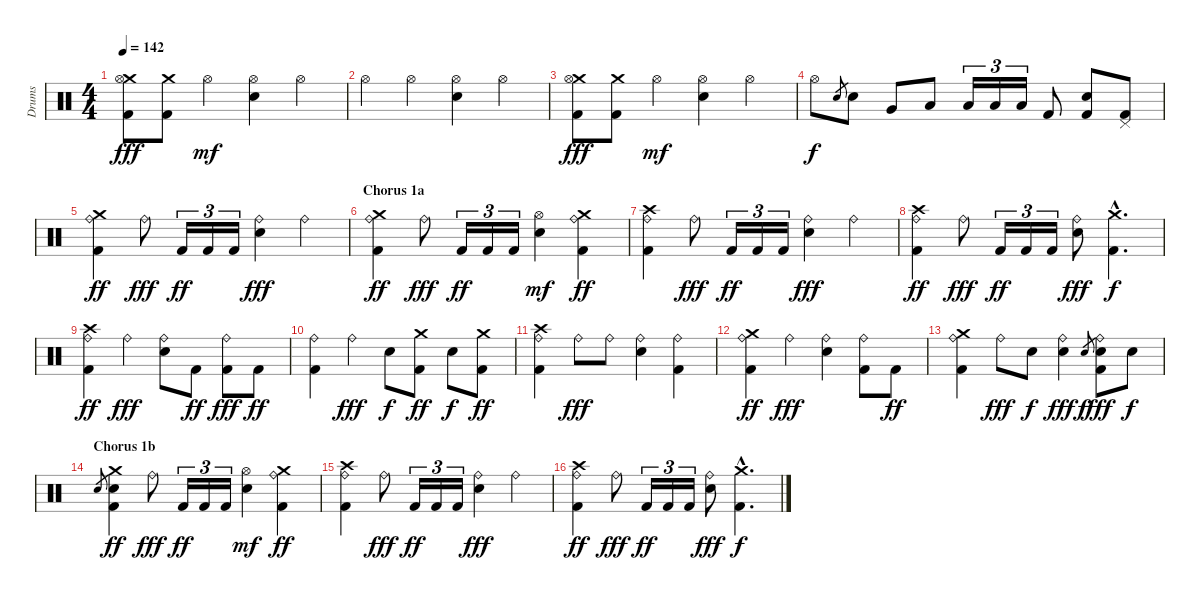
\track ("Drums" "Drums") {instrument percussion}
\staff {score}
\articulation defaults
\ts (4 4)
\tempo 142
\clef neutral
\ks c
("Crash medium (hit)" "Hi-Hat (open)" "Kick (hit) 2").8{dy fff} ("Crash medium (hit)" "Kick (hit) 2").8 "Hi-Hat (open)".4{dy mf} ("Hi-Hat (open)" "Snare (hit) 2").4 "Hi-Hat (open)".4 |
"Hi-Hat (open)".4 "Hi-Hat (open)".4 ("Hi-Hat (open)" "Snare (hit) 2").4 "Hi-Hat (open)".4 |
("Crash medium (hit)" "Hi-Hat (open)" "Kick (hit) 2").8{dy fff} ("Crash medium (hit)" "Kick (hit) 2").8 "Hi-Hat (open)".4{dy mf} ("Hi-Hat (open)" "Snare (hit) 2").4 "Hi-Hat (open)".4 |
"Hi-Hat (open)".8{dy f} "Snare (hit) 2".8{gr} "Snare (hit) 2".8 "Very Low Tom (hit)".8 "Low Floor Tom (hit)".8 "Low Floor Tom (hit)".16{tu (3 2)} "Low Floor Tom (hit)".16{tu (3 2)} "Low Floor Tom (hit)".16{tu (3 2)} "Kick (hit) 2".8 ("Snare (hit) 2" "Kick (hit) 2").8 ("Pedal Hi-Hat (hit)" "Kick (hit) 2").8 |
("Crash medium (hit)" "Ride (bell)" "Kick (hit) 2").4{dy ff} "Ride (bell)".8{dy fff} "Kick (hit) 2".16{tu (3 2) dy ff} "Kick (hit) 2".16{tu (3 2)} "Kick (hit) 2".16{tu (3 2)} ("Ride (bell)" "Snare (hit) 2").4{dy fff} "Ride (bell)".4 |
\section ("" "Chorus 1a")
("Crash medium (hit)" "Ride (bell)" "Kick (hit) 2").4{dy ff} "Ride (bell)".8{dy fff} "Kick (hit) 2".16{tu (3 2) dy ff} "Kick (hit) 2".16{tu (3 2)} "Kick (hit) 2".16{tu (3 2)} ("Hi-Hat (open)" "Snare (hit) 2").4{dy mf} ("Crash medium (hit)" "Ride (bell)" "Kick (hit) 2").4{dy ff} |
("Crash high (hit)" "Ride (bell)" "Kick (hit) 2").4 "Ride (bell)".8{dy fff} "Kick (hit) 2".16{tu (3 2) dy ff} "Kick (hit) 2".16{tu (3 2)} "Kick (hit) 2".16{tu (3 2)} ("Ride (bell)" "Snare (hit) 2").4{dy fff} "Ride (bell)".4 |
("Crash high (hit)" "Ride (bell)" "Kick (hit) 2").4{dy ff} "Ride (bell)".8{dy fff} "Kick (hit) 2".16{tu (3 2) dy ff} "Kick (hit) 2".16{tu (3 2)} "Kick (hit) 2".16{tu (3 2)} ("Ride (bell)" "Snare (hit) 2").8{dy fff} ("Crash medium (hit)"{hac} "Kick (hit) 2"{hac}).4{d dy f} |
("Crash high (hit)" "Ride (bell)" "Kick (hit) 2").4{dy ff} "Ride (bell)".4{dy fff} ("Ride (bell)" "Snare (hit) 2").8 "Kick (hit) 2".8{dy ff} ("Ride (bell)" "Kick (hit) 2").8{dy fff} "Kick (hit) 2".8{dy ff} |
("Ride (bell)" "Kick (hit) 2").4 "Ride (bell)".4{dy fff} "Snare (hit) 2".8{dy f} ("Crash medium (hit)" "Kick (hit) 2").8{dy ff} "Snare (hit) 2".8{dy f} ("Crash medium (hit)" "Kick (hit) 2").8{dy ff} |
("Crash high (hit)" "Ride (bell)" "Kick (hit) 2").4 "Ride (bell)".8{dy fff} "Ride (bell)".8 ("Ride (bell)" "Snare (hit) 2").4 ("Ride (bell)" "Kick (hit) 2").4 |
("Crash medium (hit)" "Ride (bell)" "Kick (hit) 2").4{dy ff} "Ride (bell)".4{dy fff} ("Ride (bell)" "Snare (hit) 2").4 ("Ride (bell)" "Kick (hit) 2").8 "Kick (hit) 2".8{dy ff} |
("Crash medium (hit)" "Ride (bell)" "Kick (hit) 2").4 "Ride (bell)".8{dy fff} "Snare (hit) 2".8{dy f} ("Ride (bell)" "Snare (hit) 2").4{dy fff} "Snare (hit) 2".8{gr dy f} ("Ride (bell)" "Snare (hit) 2" "Kick (hit) 2").8{dy fff} "Snare (hit) 2".8{dy f} |
\section ("" "Chorus 1b")
"Snare (hit) 2".8{gr} ("Crash medium (hit)" "Snare (hit) 2" "Kick (hit) 2").4{dy ff} "Ride (bell)".8{dy fff} "Kick (hit) 2".16{tu (3 2) dy ff} "Kick (hit) 2".16{tu (3 2)} "Kick (hit) 2".16{tu (3 2)} ("Hi-Hat (open)" "Snare (hit) 2").4{dy mf} ("Crash medium (hit)" "Ride (bell)" "Kick (hit) 2").4{dy ff} |
("Crash high (hit)" "Ride (bell)" "Kick (hit) 2").4 "Ride (bell)".8{dy fff} "Kick (hit) 2".16{tu (3 2) dy ff} "Kick (hit) 2".16{tu (3 2)} "Kick (hit) 2".16{tu (3 2)} ("Ride (bell)" "Snare (hit) 2").4{dy fff} "Ride (bell)".4 |
("Crash high (hit)" "Ride (bell)" "Kick (hit) 2").4{dy ff} "Ride (bell)".8{dy fff} "Kick (hit) 2".16{tu (3 2) dy ff} "Kick (hit) 2".16{tu (3 2)} "Kick (hit) 2".16{tu (3 2)} ("Ride (bell)" "Snare (hit) 2").8{dy fff} ("Crash medium (hit)"{hac} "Kick (hit) 2"{hac}).4{d dy f}
